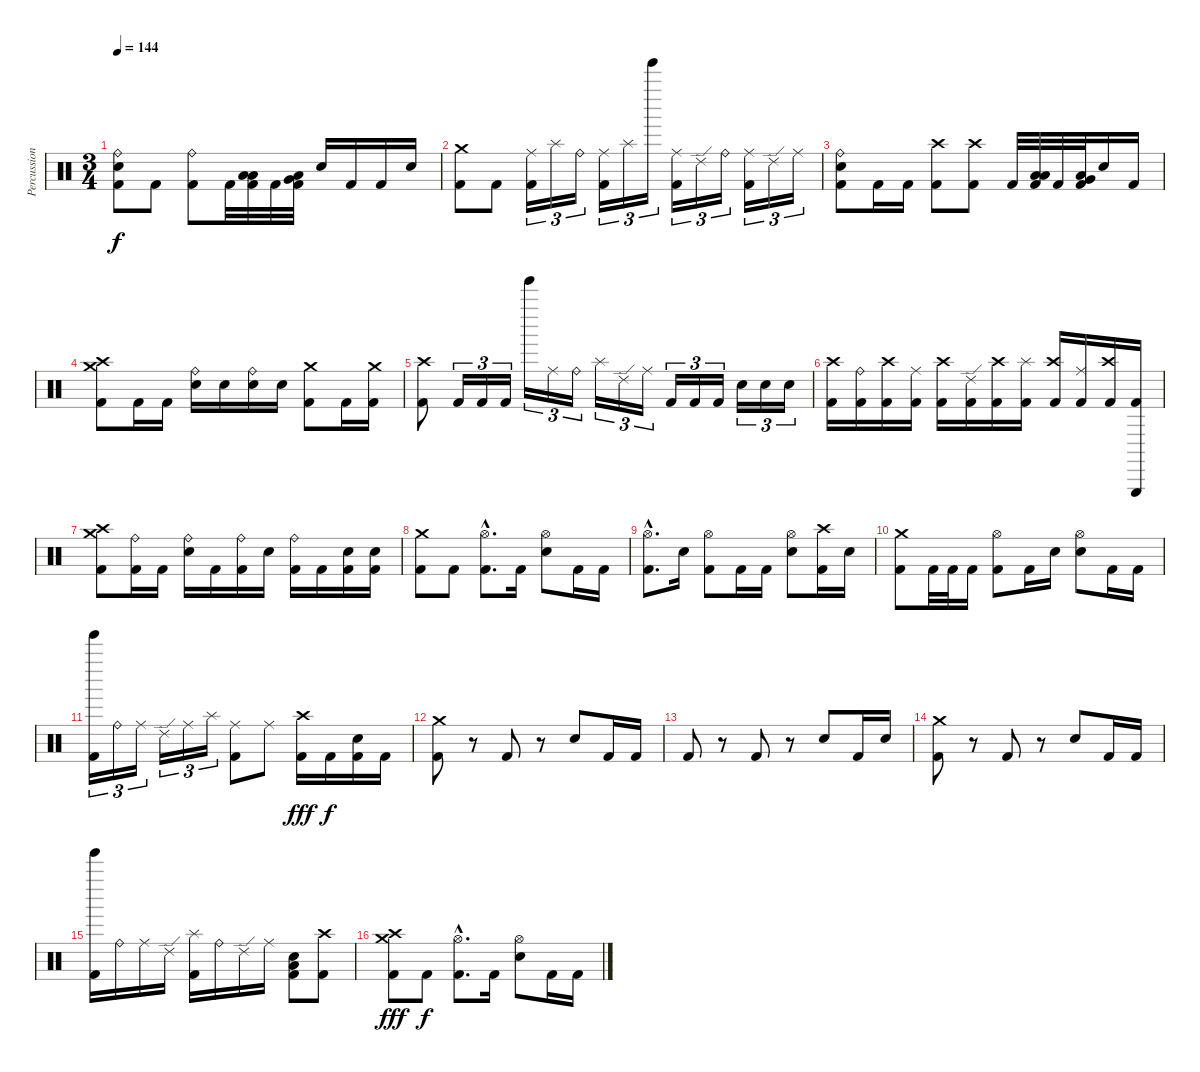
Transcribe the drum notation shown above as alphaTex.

\track ("Percussion" "Percussion") {instrument percussion}
\staff {score}
\articulation defaults
\ts (3 4)
\tempo 144
\clef neutral
\ks c
("Ride (bell)" "Electric Snare (hit)" "Kick (hit) 2").8{dy f} "Kick (hit) 2".8 ("Ride (bell)" "Kick (hit) 2").8 "Kick (hit) 2".32 ("Low Tom (hit)" "Low Tom (hit)" "Kick (hit) 2").32 "Kick (hit) 2".32 ("Very Low Tom (hit)" "Low Tom (hit)" "Kick (hit) 2").32 "Electric Snare (hit)".16 "Kick (hit) 2".16 "Kick (hit) 2".16 "Electric Snare (hit)".16 |
("Crash medium (hit)" "Kick (hit) 2").8 "Kick (hit) 2".8 ("Ride (middle)" "Kick (hit) 2").16{tu (3 2)} "Splash (hit)".16{tu (3 2)} "Ride (bell)".16{tu (3 2)} ("Ride (middle)" "Kick (hit) 2").16{tu (3 2)} "Splash (hit)".16{tu (3 2)} "Tinkle Bell (hit)".16{tu (3 2)} ("Ride (middle)" "Kick (hit) 2").16{tu (3 2)} "Ride (edge) 2".16{tu (3 2)} "Ride (bell)".16{tu (3 2)} ("Ride (middle)" "Kick (hit) 2").16{tu (3 2)} "Ride (edge) 2".16{tu (3 2)} "Ride (middle)".16{tu (3 2)} |
("Ride (bell)" "Electric Snare (hit)" "Kick (hit) 2").8 "Kick (hit) 2".16 "Kick (hit) 2".16 ("Crash high (hit)" "Kick (hit) 2").8 ("Crash high (hit)" "Kick (hit) 2").8 "Kick (hit) 2".32 ("Low Tom (hit)" "Low Tom (hit)" "Kick (hit) 2").32 "Kick (hit) 2".32 ("Very Low Tom (hit)" "Low Tom (hit)" "Kick (hit) 2").32 "Electric Snare (hit)".16 "Kick (hit) 2".16 |
("Crash high (hit)" "Crash medium (hit)" "Kick (hit) 2").8 "Kick (hit) 2".16 "Kick (hit) 2".16 ("Ride (bell)" "Electric Snare (hit)").16 "Electric Snare (hit)".16 ("Ride (bell)" "Electric Snare (hit)").16 "Electric Snare (hit)".16 ("Crash medium (hit)" "Kick (hit) 2").8 "Kick (hit) 2".16 ("Crash medium (hit)" "Kick (hit) 2").16 |
("Crash high (hit)" "Kick (hit) 2").8 "Kick (hit) 2".16{tu (3 2)} "Kick (hit) 2".16{tu (3 2)} "Kick (hit) 2".16{tu (3 2)} "Tinkle Bell (hit)".16{tu (3 2)} "Ride (middle)".16{tu (3 2)} "Ride (bell)".16{tu (3 2)} "Splash (hit)".16{tu (3 2)} "Ride (edge) 2".16{tu (3 2)} "Ride (middle)".16{tu (3 2)} "Kick (hit) 2".16{tu (3 2)} "Kick (hit) 2".16{tu (3 2)} "Kick (hit) 2".16{tu (3 2)} "Electric Snare (hit)".16{tu (3 2)} "Electric Snare (hit)".16{tu (3 2)} "Electric Snare (hit)".16{tu (3 2)} |
("Crash high (hit)" "Kick (hit) 2").16 ("Ride (bell)" "Kick (hit) 2").16 ("Crash high (hit)" "Kick (hit) 2").16 ("Ride (middle)" "Kick (hit) 2").16 ("Crash high (hit)" "Kick (hit) 2").16 ("Ride (edge) 2" "Kick (hit) 2").16 ("Crash high (hit)" "Kick (hit) 2").16 ("Splash (hit)" "Kick (hit) 2").16 ("Crash high (hit)" "Kick (hit) 2").16 ("Ride (middle)" "Kick (hit) 2").16 ("Crash high (hit)" "Kick (hit) 2").16 ("Triangle (hit)" "Kick (hit) 2").16 |
("Crash high (hit)" "Crash medium (hit)" "Kick (hit) 2").8 ("Ride (bell)" "Kick (hit) 2").16 "Kick (hit) 2".16 ("Ride (bell)" "Electric Snare (hit)").16 "Kick (hit) 2".16 ("Ride (bell)" "Kick (hit) 2").16 "Electric Snare (hit)".16 ("Ride (bell)" "Kick (hit) 2").16 "Kick (hit) 2".16 ("Electric Snare (hit)" "Kick (hit) 2").16 ("Electric Snare (hit)" "Kick (hit) 2").16 |
("Crash medium (hit)" "Kick (hit) 2").8 "Kick (hit) 2".8 ("Hi-Hat (open)"{hac} "Kick (hit) 2"{hac}).8{d} "Kick (hit) 2".16 ("Hi-Hat (open)" "Electric Snare (hit)").8 "Kick (hit) 2".16 "Kick (hit) 2".16 |
("Hi-Hat (open)"{hac} "Kick (hit) 2"{hac}).8{d} "Electric Snare (hit)".16 ("Hi-Hat (open)" "Kick (hit) 2").8 "Kick (hit) 2".16 "Kick (hit) 2".16 ("Hi-Hat (open)" "Electric Snare (hit)").8 ("Crash high (hit)" "Kick (hit) 2").16 "Electric Snare (hit)".16 |
("Crash medium (hit)" "Kick (hit) 2").8 "Kick (hit) 2".32 "Kick (hit) 2".32 "Kick (hit) 2".16 ("Hi-Hat (open)" "Kick (hit) 2").8 "Kick (hit) 2".16 "Electric Snare (hit)".16 ("Hi-Hat (open)" "Electric Snare (hit)").8 "Kick (hit) 2".16 "Kick (hit) 2".16 |
("Tinkle Bell (hit)" "Kick (hit) 2").16{tu (3 2)} "Ride (bell)".16{tu (3 2)} "Ride (middle)".16{tu (3 2)} "Ride (edge) 2".16{tu (3 2)} "Ride (middle)".16{tu (3 2)} "Splash (hit)".16{tu (3 2)} ("Ride (middle)" "Kick (hit) 2").8 "Ride (middle)".8 ("Crash high (hit)" "Kick (hit) 2").16{dy fff} "Kick (hit) 2".16{dy f} ("Electric Snare (hit)" "Kick (hit) 2").16 "Kick (hit) 2".16 |
("Crash medium (hit)" "Kick (hit) 2").8 r.8 "Kick (hit) 2".8 r.8 "Electric Snare (hit)".8 "Kick (hit) 2".16 "Kick (hit) 2".16 |
"Kick (hit) 2".8 r.8 "Kick (hit) 2".8 r.8 "Electric Snare (hit)".8 "Kick (hit) 2".16 "Electric Snare (hit)".16 |
("Crash medium (hit)" "Kick (hit) 2").8 r.8 "Kick (hit) 2".8 r.8 "Electric Snare (hit)".8 "Kick (hit) 2".16 "Kick (hit) 2".16 |
("Tinkle Bell (hit)" "Kick (hit) 2").16 "Ride (bell)".16 "Ride (middle)".16 "Ride (edge) 2".16 ("Splash (hit)" "Kick (hit) 2").16 "Ride (bell)".16 "Ride (edge) 2".16 "Ride (middle)".16 ("Low Tom (hit)" "Electric Snare (hit)" "Kick (hit) 2").8 ("Crash high (hit)" "Kick (hit) 2").8 |
("Crash medium (hit)" "Crash high (hit)" "Kick (hit) 2").8{dy fff} "Kick (hit) 2".8{dy f} ("Hi-Hat (open)"{hac} "Kick (hit) 2"{hac}).8{d} "Kick (hit) 2".16 ("Hi-Hat (open)" "Electric Snare (hit)").8 "Kick (hit) 2".16 "Kick (hit) 2".16
